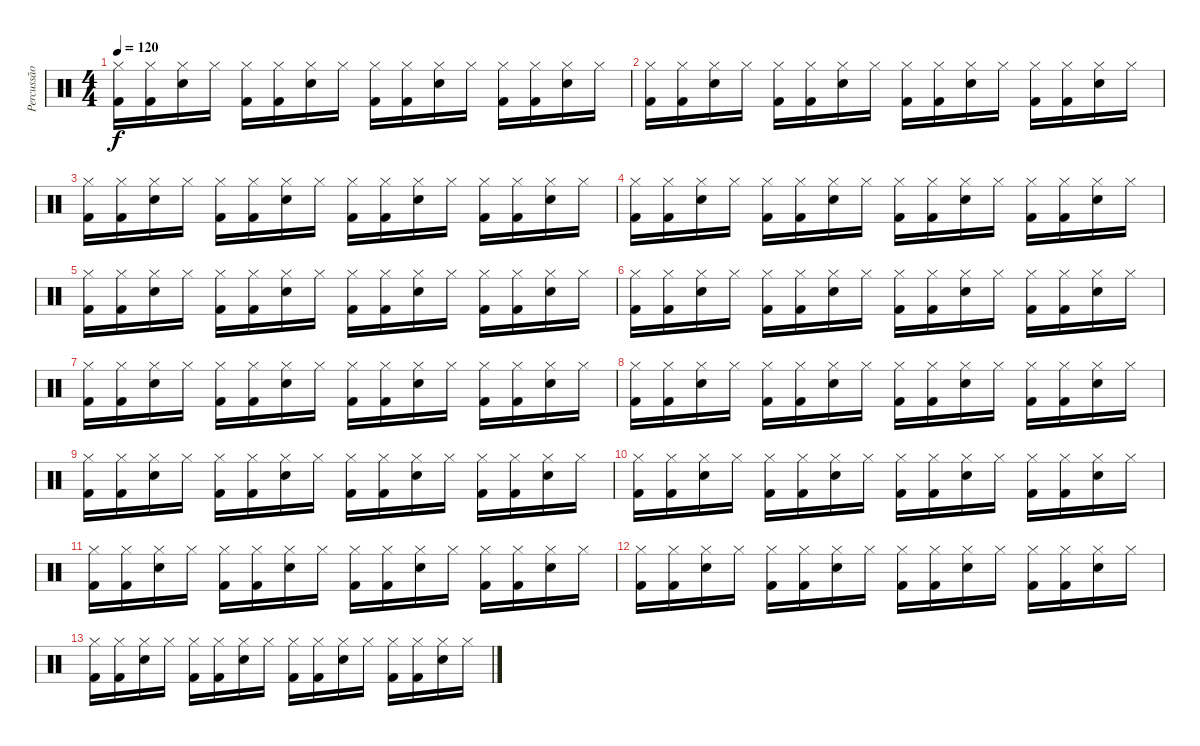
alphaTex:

\track ("Percussão" "Percussão") {instrument percussion}
\staff {score}
\articulation defaults
\ts (4 4)
\tempo 120
\clef neutral
\ks c
("Hi-Hat (closed)" "Kick (hit) 2").16{dy f} ("Hi-Hat (closed)" "Kick (hit) 2").16 ("Hi-Hat (closed)" "Electric Snare (hit)").16 "Hi-Hat (closed)".16 ("Hi-Hat (closed)" "Kick (hit) 2").16 ("Hi-Hat (closed)" "Kick (hit) 2").16 ("Hi-Hat (closed)" "Electric Snare (hit)").16 "Hi-Hat (closed)".16 ("Hi-Hat (closed)" "Kick (hit) 2").16 ("Hi-Hat (closed)" "Kick (hit) 2").16 ("Hi-Hat (closed)" "Electric Snare (hit)").16 "Hi-Hat (closed)".16 ("Hi-Hat (closed)" "Kick (hit) 2").16 ("Hi-Hat (closed)" "Kick (hit) 2").16 ("Hi-Hat (closed)" "Electric Snare (hit)").16 "Hi-Hat (closed)".16 |
("Hi-Hat (closed)" "Kick (hit) 2").16 ("Hi-Hat (closed)" "Kick (hit) 2").16 ("Hi-Hat (closed)" "Electric Snare (hit)").16 "Hi-Hat (closed)".16 ("Hi-Hat (closed)" "Kick (hit) 2").16 ("Hi-Hat (closed)" "Kick (hit) 2").16 ("Hi-Hat (closed)" "Electric Snare (hit)").16 "Hi-Hat (closed)".16 ("Hi-Hat (closed)" "Kick (hit) 2").16 ("Hi-Hat (closed)" "Kick (hit) 2").16 ("Hi-Hat (closed)" "Electric Snare (hit)").16 "Hi-Hat (closed)".16 ("Hi-Hat (closed)" "Kick (hit) 2").16 ("Hi-Hat (closed)" "Kick (hit) 2").16 ("Hi-Hat (closed)" "Electric Snare (hit)").16 "Hi-Hat (closed)".16 |
("Hi-Hat (closed)" "Kick (hit) 2").16 ("Hi-Hat (closed)" "Kick (hit) 2").16 ("Hi-Hat (closed)" "Electric Snare (hit)").16 "Hi-Hat (closed)".16 ("Hi-Hat (closed)" "Kick (hit) 2").16 ("Hi-Hat (closed)" "Kick (hit) 2").16 ("Hi-Hat (closed)" "Electric Snare (hit)").16 "Hi-Hat (closed)".16 ("Hi-Hat (closed)" "Kick (hit) 2").16 ("Hi-Hat (closed)" "Kick (hit) 2").16 ("Hi-Hat (closed)" "Electric Snare (hit)").16 "Hi-Hat (closed)".16 ("Hi-Hat (closed)" "Kick (hit) 2").16 ("Hi-Hat (closed)" "Kick (hit) 2").16 ("Hi-Hat (closed)" "Electric Snare (hit)").16 "Hi-Hat (closed)".16 |
("Hi-Hat (closed)" "Kick (hit) 2").16 ("Hi-Hat (closed)" "Kick (hit) 2").16 ("Hi-Hat (closed)" "Electric Snare (hit)").16 "Hi-Hat (closed)".16 ("Hi-Hat (closed)" "Kick (hit) 2").16 ("Hi-Hat (closed)" "Kick (hit) 2").16 ("Hi-Hat (closed)" "Electric Snare (hit)").16 "Hi-Hat (closed)".16 ("Hi-Hat (closed)" "Kick (hit) 2").16 ("Hi-Hat (closed)" "Kick (hit) 2").16 ("Hi-Hat (closed)" "Electric Snare (hit)").16 "Hi-Hat (closed)".16 ("Hi-Hat (closed)" "Kick (hit) 2").16 ("Hi-Hat (closed)" "Kick (hit) 2").16 ("Hi-Hat (closed)" "Electric Snare (hit)").16 "Hi-Hat (closed)".16 |
("Hi-Hat (closed)" "Kick (hit) 2").16 ("Hi-Hat (closed)" "Kick (hit) 2").16 ("Hi-Hat (closed)" "Electric Snare (hit)").16 "Hi-Hat (closed)".16 ("Hi-Hat (closed)" "Kick (hit) 2").16 ("Hi-Hat (closed)" "Kick (hit) 2").16 ("Hi-Hat (closed)" "Electric Snare (hit)").16 "Hi-Hat (closed)".16 ("Hi-Hat (closed)" "Kick (hit) 2").16 ("Hi-Hat (closed)" "Kick (hit) 2").16 ("Hi-Hat (closed)" "Electric Snare (hit)").16 "Hi-Hat (closed)".16 ("Hi-Hat (closed)" "Kick (hit) 2").16 ("Hi-Hat (closed)" "Kick (hit) 2").16 ("Hi-Hat (closed)" "Electric Snare (hit)").16 "Hi-Hat (closed)".16 |
("Hi-Hat (closed)" "Kick (hit) 2").16 ("Hi-Hat (closed)" "Kick (hit) 2").16 ("Hi-Hat (closed)" "Electric Snare (hit)").16 "Hi-Hat (closed)".16 ("Hi-Hat (closed)" "Kick (hit) 2").16 ("Hi-Hat (closed)" "Kick (hit) 2").16 ("Hi-Hat (closed)" "Electric Snare (hit)").16 "Hi-Hat (closed)".16 ("Hi-Hat (closed)" "Kick (hit) 2").16 ("Hi-Hat (closed)" "Kick (hit) 2").16 ("Hi-Hat (closed)" "Electric Snare (hit)").16 "Hi-Hat (closed)".16 ("Hi-Hat (closed)" "Kick (hit) 2").16 ("Hi-Hat (closed)" "Kick (hit) 2").16 ("Hi-Hat (closed)" "Electric Snare (hit)").16 "Hi-Hat (closed)".16 |
("Hi-Hat (closed)" "Kick (hit) 2").16 ("Hi-Hat (closed)" "Kick (hit) 2").16 ("Hi-Hat (closed)" "Electric Snare (hit)").16 "Hi-Hat (closed)".16 ("Hi-Hat (closed)" "Kick (hit) 2").16 ("Hi-Hat (closed)" "Kick (hit) 2").16 ("Hi-Hat (closed)" "Electric Snare (hit)").16 "Hi-Hat (closed)".16 ("Hi-Hat (closed)" "Kick (hit) 2").16 ("Hi-Hat (closed)" "Kick (hit) 2").16 ("Hi-Hat (closed)" "Electric Snare (hit)").16 "Hi-Hat (closed)".16 ("Hi-Hat (closed)" "Kick (hit) 2").16 ("Hi-Hat (closed)" "Kick (hit) 2").16 ("Hi-Hat (closed)" "Electric Snare (hit)").16 "Hi-Hat (closed)".16 |
("Hi-Hat (closed)" "Kick (hit) 2").16 ("Hi-Hat (closed)" "Kick (hit) 2").16 ("Hi-Hat (closed)" "Electric Snare (hit)").16 "Hi-Hat (closed)".16 ("Hi-Hat (closed)" "Kick (hit) 2").16 ("Hi-Hat (closed)" "Kick (hit) 2").16 ("Hi-Hat (closed)" "Electric Snare (hit)").16 "Hi-Hat (closed)".16 ("Hi-Hat (closed)" "Kick (hit) 2").16 ("Hi-Hat (closed)" "Kick (hit) 2").16 ("Hi-Hat (closed)" "Electric Snare (hit)").16 "Hi-Hat (closed)".16 ("Hi-Hat (closed)" "Kick (hit) 2").16 ("Hi-Hat (closed)" "Kick (hit) 2").16 ("Hi-Hat (closed)" "Electric Snare (hit)").16 "Hi-Hat (closed)".16 |
("Hi-Hat (closed)" "Kick (hit) 2").16 ("Hi-Hat (closed)" "Kick (hit) 2").16 ("Hi-Hat (closed)" "Electric Snare (hit)").16 "Hi-Hat (closed)".16 ("Hi-Hat (closed)" "Kick (hit) 2").16 ("Hi-Hat (closed)" "Kick (hit) 2").16 ("Hi-Hat (closed)" "Electric Snare (hit)").16 "Hi-Hat (closed)".16 ("Hi-Hat (closed)" "Kick (hit) 2").16 ("Hi-Hat (closed)" "Kick (hit) 2").16 ("Hi-Hat (closed)" "Electric Snare (hit)").16 "Hi-Hat (closed)".16 ("Hi-Hat (closed)" "Kick (hit) 2").16 ("Hi-Hat (closed)" "Kick (hit) 2").16 ("Hi-Hat (closed)" "Electric Snare (hit)").16 "Hi-Hat (closed)".16 |
("Hi-Hat (closed)" "Kick (hit) 2").16 ("Hi-Hat (closed)" "Kick (hit) 2").16 ("Hi-Hat (closed)" "Electric Snare (hit)").16 "Hi-Hat (closed)".16 ("Hi-Hat (closed)" "Kick (hit) 2").16 ("Hi-Hat (closed)" "Kick (hit) 2").16 ("Hi-Hat (closed)" "Electric Snare (hit)").16 "Hi-Hat (closed)".16 ("Hi-Hat (closed)" "Kick (hit) 2").16 ("Hi-Hat (closed)" "Kick (hit) 2").16 ("Hi-Hat (closed)" "Electric Snare (hit)").16 "Hi-Hat (closed)".16 ("Hi-Hat (closed)" "Kick (hit) 2").16 ("Hi-Hat (closed)" "Kick (hit) 2").16 ("Hi-Hat (closed)" "Electric Snare (hit)").16 "Hi-Hat (closed)".16 |
("Hi-Hat (closed)" "Kick (hit) 2").16 ("Hi-Hat (closed)" "Kick (hit) 2").16 ("Hi-Hat (closed)" "Electric Snare (hit)").16 "Hi-Hat (closed)".16 ("Hi-Hat (closed)" "Kick (hit) 2").16 ("Hi-Hat (closed)" "Kick (hit) 2").16 ("Hi-Hat (closed)" "Electric Snare (hit)").16 "Hi-Hat (closed)".16 ("Hi-Hat (closed)" "Kick (hit) 2").16 ("Hi-Hat (closed)" "Kick (hit) 2").16 ("Hi-Hat (closed)" "Electric Snare (hit)").16 "Hi-Hat (closed)".16 ("Hi-Hat (closed)" "Kick (hit) 2").16 ("Hi-Hat (closed)" "Kick (hit) 2").16 ("Hi-Hat (closed)" "Electric Snare (hit)").16 "Hi-Hat (closed)".16 |
("Hi-Hat (closed)" "Kick (hit) 2").16 ("Hi-Hat (closed)" "Kick (hit) 2").16 ("Hi-Hat (closed)" "Electric Snare (hit)").16 "Hi-Hat (closed)".16 ("Hi-Hat (closed)" "Kick (hit) 2").16 ("Hi-Hat (closed)" "Kick (hit) 2").16 ("Hi-Hat (closed)" "Electric Snare (hit)").16 "Hi-Hat (closed)".16 ("Hi-Hat (closed)" "Kick (hit) 2").16 ("Hi-Hat (closed)" "Kick (hit) 2").16 ("Hi-Hat (closed)" "Electric Snare (hit)").16 "Hi-Hat (closed)".16 ("Hi-Hat (closed)" "Kick (hit) 2").16 ("Hi-Hat (closed)" "Kick (hit) 2").16 ("Hi-Hat (closed)" "Electric Snare (hit)").16 "Hi-Hat (closed)".16 |
("Hi-Hat (closed)" "Kick (hit) 2").16 ("Hi-Hat (closed)" "Kick (hit) 2").16 ("Hi-Hat (closed)" "Electric Snare (hit)").16 "Hi-Hat (closed)".16 ("Hi-Hat (closed)" "Kick (hit) 2").16 ("Hi-Hat (closed)" "Kick (hit) 2").16 ("Hi-Hat (closed)" "Electric Snare (hit)").16 "Hi-Hat (closed)".16 ("Hi-Hat (closed)" "Kick (hit) 2").16 ("Hi-Hat (closed)" "Kick (hit) 2").16 ("Hi-Hat (closed)" "Electric Snare (hit)").16 "Hi-Hat (closed)".16 ("Hi-Hat (closed)" "Kick (hit) 2").16 ("Hi-Hat (closed)" "Kick (hit) 2").16 ("Hi-Hat (closed)" "Electric Snare (hit)").16 "Hi-Hat (closed)".16
